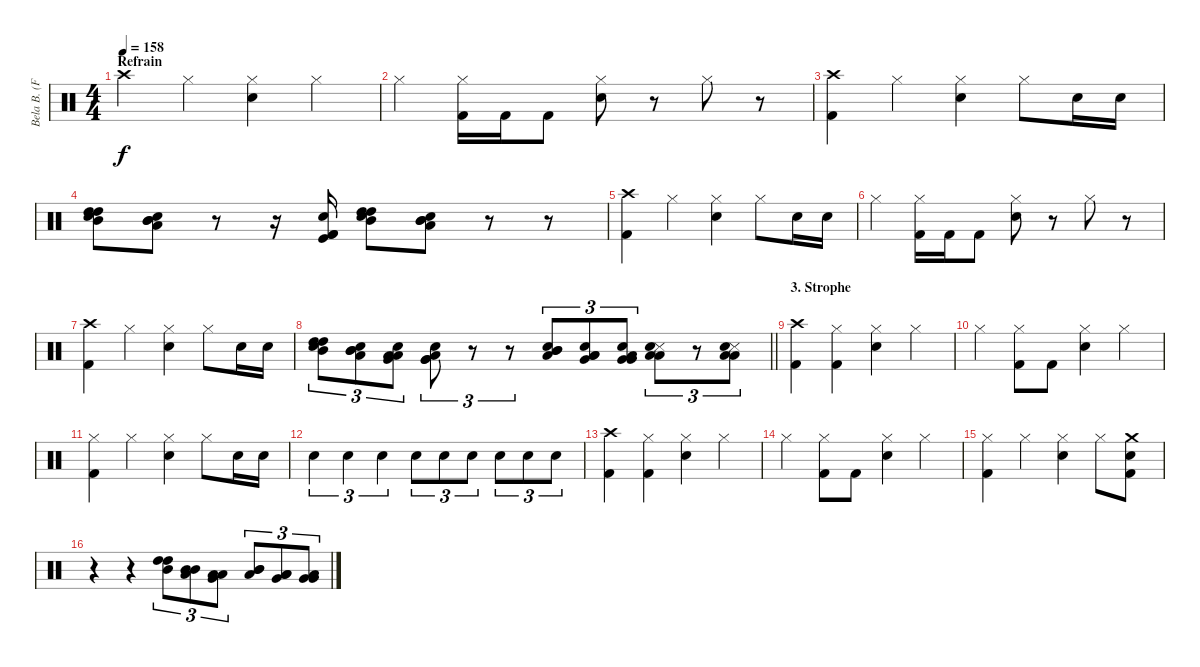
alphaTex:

\track ("Bela B. (Felsenheimer)" "Bela B. (F") {instrument percussion}
\staff {score}
\articulation defaults
\ts (4 4)
\section ("" "Refrain")
\tempo 158
\clef neutral
\ks c "Crash high (hit)".4{dy f} "Hi-Hat (closed)".4
("Hi-Hat (closed)" "Electric Snare (hit)").4 "Hi-Hat (closed)".4 |
"Hi-Hat (closed)".4 ("Kick (hit) 2" "Hi-Hat (closed)").16 "Kick (hit) 2".16 "Kick (hit) 2".8 ("Snare (hit) 2" "Hi-Hat (closed)").8 r.8 "Hi-Hat (closed)".8 r.8 |
("Crash high (hit)" "Kick (hit) 2").4 "Hi-Hat (closed)".4 ("Hi-Hat (closed)" "Electric Snare (hit)").4 "Hi-Hat (closed)".8 "Electric Snare (hit)".16 "Electric Snare (hit)".16 |
("Mid Tom (hit)" "High Tom (hit)" "Electric Snare (hit)" "High Tom (hit)").8 ("Low Tom (hit)" "Mid Tom (hit)" "Electric Snare (hit)" "Mid Tom (hit)").8 r.8 r.16 ("Kick (hit)" "Kick (hit) 2" "Electric Snare (hit)" "Kick (hit) 2").16 ("Mid Tom (hit)" "High Tom (hit)" "Electric Snare (hit)" "High Tom (hit)").8 ("Low Tom (hit)" "Mid Tom (hit)" "Electric Snare (hit)" "Mid Tom (hit)").8 r.8 r.8 |
("Crash high (hit)" "Kick (hit) 2").4 "Hi-Hat (closed)".4 ("Hi-Hat (closed)" "Electric Snare (hit)").4 "Hi-Hat (closed)".8 "Electric Snare (hit)".16 "Electric Snare (hit)".16 |
"Hi-Hat (closed)".4 ("Kick (hit) 2" "Hi-Hat (closed)").16 "Kick (hit) 2".16 "Kick (hit) 2".8 ("Snare (hit) 2" "Hi-Hat (closed)").8 r.8 "Hi-Hat (closed)".8 r.8 |
("Crash high (hit)" "Kick (hit) 2").4 "Hi-Hat (closed)".4 ("Hi-Hat (closed)" "Electric Snare (hit)").4 "Hi-Hat (closed)".8 "Electric Snare (hit)".16 "Electric Snare (hit)".16 |
\barLineRight lightlight
("Mid Tom (hit)" "Electric Snare (hit)" "High Tom (hit)" "High Tom (hit)").8{tu (3 2)} ("Low Tom (hit)" "Electric Snare (hit)" "Mid Tom (hit)" "Mid Tom (hit)").8{tu (3 2)} ("Very Low Tom (hit)" "Electric Snare (hit)" "Low Tom (hit)" "Low Tom (hit)").8{tu (3 2)} ("Low Floor Tom (hit)" "Electric Snare (hit)" "Very Low Tom (hit)" "Very Low Tom (hit)").8{tu (3 2)} r.8{tu (3 2)} r.8{tu (3 2)} ("Low Tom (hit)" "Electric Snare (hit)" "Mid Tom (hit)" "Mid Tom (hit)").8{tu (3 2)} ("Very Low Tom (hit)" "Electric Snare (hit)" "Low Tom (hit)" "Low Tom (hit)").8{tu (3 2)} ("Low Floor Tom (hit)" "Electric Snare (hit)" "Very Low Tom (hit)" "Very Low Tom (hit)").8{tu (3 2)} ("Snare (side stick) 3" "Electric Snare (hit)" "Low Floor Tom (hit)" "Low Floor Tom (hit)").8{tu (3 2)} r.8{tu (3 2)} ("Snare (side stick) 3" "Electric Snare (hit)" "Low Floor Tom (hit)" "Low Floor Tom (hit)").8{tu (3 2)} |
\section ("" "3. Strophe")
("Crash high (hit)" "Kick (hit) 2").4 ("Hi-Hat (closed)" "Kick (hit) 2").4 ("Hi-Hat (closed)" "Electric Snare (hit)").4 "Hi-Hat (closed)".4 |
"Hi-Hat (closed)".4 ("Kick (hit) 2" "Hi-Hat (closed)").8 "Kick (hit) 2".8 ("Electric Snare (hit)" "Hi-Hat (closed)").4 "Hi-Hat (closed)".4 |
("Hi-Hat (closed)" "Kick (hit) 2").4 "Hi-Hat (closed)".4 ("Hi-Hat (closed)" "Electric Snare (hit)").4 "Hi-Hat (closed)".8 "Electric Snare (hit)".16 "Electric Snare (hit)".16 |
"Electric Snare (hit)".4{tu (3 2)} "Electric Snare (hit)".4{tu (3 2)} "Electric Snare (hit)".4{tu (3 2)} "Electric Snare (hit)".8{tu (3 2)} "Electric Snare (hit)".8{tu (3 2)} "Electric Snare (hit)".8{tu (3 2)} "Electric Snare (hit)".8{tu (3 2)} "Electric Snare (hit)".8{tu (3 2)} "Electric Snare (hit)".8{tu (3 2)} |
("Crash high (hit)" "Kick (hit) 2").4 ("Hi-Hat (closed)" "Kick (hit) 2").4 ("Hi-Hat (closed)" "Electric Snare (hit)").4 "Hi-Hat (closed)".4 |
"Hi-Hat (closed)".4 ("Kick (hit) 2" "Hi-Hat (closed)").8 "Kick (hit) 2".8 ("Electric Snare (hit)" "Hi-Hat (closed)").4 "Hi-Hat (closed)".4 |
("Hi-Hat (closed)" "Kick (hit) 2").4 "Hi-Hat (closed)".4 ("Hi-Hat (closed)" "Electric Snare (hit)").4 "Hi-Hat (closed)".8 ("Crash medium (hit)" "Electric Snare (hit)" "Kick (hit) 2").8 |
r.4 r.4 ("High Tom (hit)" "Mid Tom (hit)" "High Tom (hit)").8{tu (3 2)} ("Mid Tom (hit)" "Low Tom (hit)" "Mid Tom (hit)").8{tu (3 2)} ("Low Tom (hit)" "Very Low Tom (hit)" "Low Tom (hit)").8{tu (3 2)} ("Mid Tom (hit)" "Low Tom (hit)" "Mid Tom (hit)").8{tu (3 2)} ("Low Tom (hit)" "Very Low Tom (hit)" "Low Tom (hit)").8{tu (3 2)} ("Very Low Tom (hit)" "Low Floor Tom (hit)" "Very Low Tom (hit)").8{tu (3 2)}
